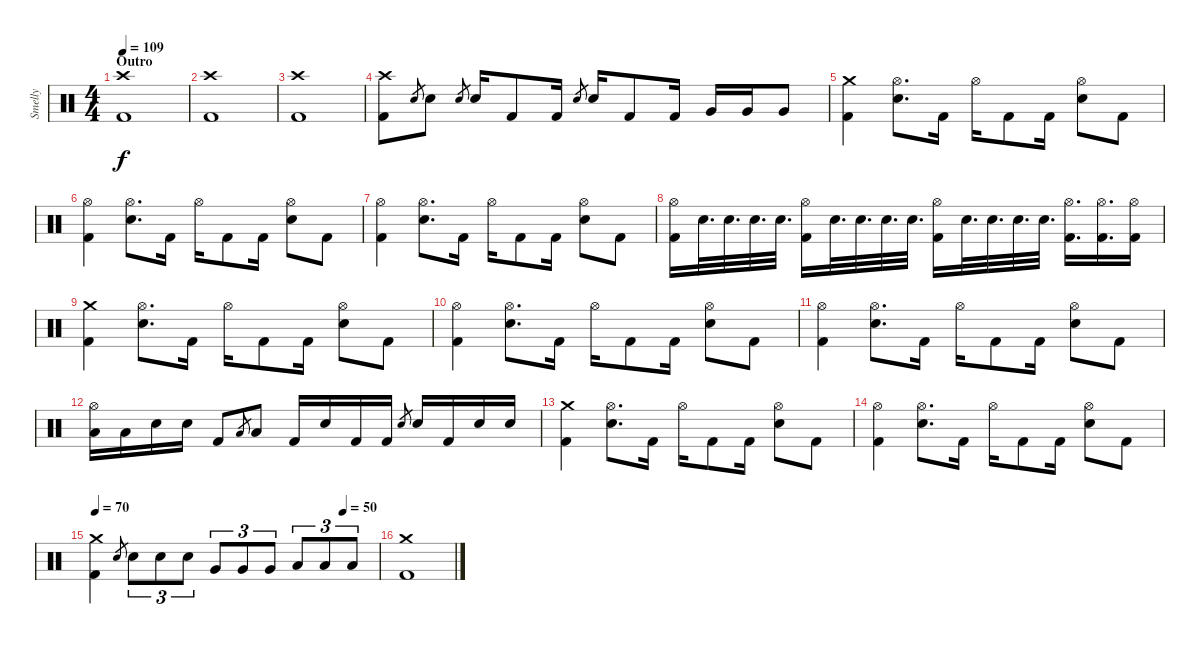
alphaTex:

\track ("Smelly" "Smelly") {instrument percussion}
\staff {score}
\articulation defaults
\ts (4 4)
\section ("" "Outro")
\tempo 109
\clef neutral
\ks c
("Crash high (hit)" "Kick (hit) 2").1{dy f} |
("Crash high (hit)" "Kick (hit) 2").1 |
("Crash high (hit)" "Kick (hit) 2").1 |
("Crash high (hit)" "Kick (hit) 2").8 "Electric Snare (hit)".8{gr} "Electric Snare (hit)".8 "Electric Snare (hit)".8{gr} "Electric Snare (hit)".16 "Kick (hit) 2".8 "Kick (hit) 2".16 "Electric Snare (hit)".8{gr} "Electric Snare (hit)".16 "Kick (hit) 2".8 "Kick (hit) 2".16 "Very Low Tom (hit)".16 "Very Low Tom (hit)".16 "Very Low Tom (hit)".8 |
("Crash medium (hit)" "Kick (hit) 2").4 ("Hi-Hat (open)" "Electric Snare (hit)").8{d} "Kick (hit) 2".16 "Hi-Hat (open)".16 "Kick (hit) 2".8 "Kick (hit) 2".16 ("Hi-Hat (open)" "Electric Snare (hit)").8 "Kick (hit) 2".8 |
("Hi-Hat (open)" "Kick (hit) 2").4 ("Hi-Hat (open)" "Electric Snare (hit)").8{d} "Kick (hit) 2".16 "Hi-Hat (open)".16 "Kick (hit) 2".8 "Kick (hit) 2".16 ("Hi-Hat (open)" "Electric Snare (hit)").8 "Kick (hit) 2".8 |
("Hi-Hat (open)" "Kick (hit) 2").4 ("Hi-Hat (open)" "Electric Snare (hit)").8{d} "Kick (hit) 2".16 "Hi-Hat (open)".16 "Kick (hit) 2".8 "Kick (hit) 2".16 ("Hi-Hat (open)" "Electric Snare (hit)").8 "Kick (hit) 2".8 |
("Hi-Hat (open)" "Kick (hit) 2").16 "Electric Snare (hit)".32{d} "Electric Snare (hit)".32{d} "Electric Snare (hit)".32{d} "Electric Snare (hit)".32{d} ("Hi-Hat (open)" "Kick (hit) 2").16 "Electric Snare (hit)".32{d} "Electric Snare (hit)".32{d} "Electric Snare (hit)".32{d} "Electric Snare (hit)".32{d} ("Hi-Hat (open)" "Kick (hit) 2").16 "Electric Snare (hit)".32{d} "Electric Snare (hit)".32{d} "Electric Snare (hit)".32{d} "Electric Snare (hit)".32{d} ("Hi-Hat (open)" "Kick (hit) 2").16{d} ("Hi-Hat (open)" "Kick (hit) 2").16{d} ("Hi-Hat (open)" "Kick (hit) 2").16 |
("Crash medium (hit)" "Kick (hit) 2").4 ("Hi-Hat (open)" "Electric Snare (hit)").8{d} "Kick (hit) 2".16 "Hi-Hat (open)".16 "Kick (hit) 2".8 "Kick (hit) 2".16 ("Hi-Hat (open)" "Electric Snare (hit)").8 "Kick (hit) 2".8 |
("Hi-Hat (open)" "Kick (hit) 2").4 ("Hi-Hat (open)" "Electric Snare (hit)").8{d} "Kick (hit) 2".16 "Hi-Hat (open)".16 "Kick (hit) 2".8 "Kick (hit) 2".16 ("Hi-Hat (open)" "Electric Snare (hit)").8 "Kick (hit) 2".8 |
("Hi-Hat (open)" "Kick (hit) 2").4 ("Hi-Hat (open)" "Electric Snare (hit)").8{d} "Kick (hit) 2".16 "Hi-Hat (open)".16 "Kick (hit) 2".8 "Kick (hit) 2".16 ("Hi-Hat (open)" "Electric Snare (hit)").8 "Kick (hit) 2".8 |
("Hi-Hat (open)" "Low Floor Tom (hit)").16 "Low Floor Tom (hit)".16 "Electric Snare (hit)".16 "Electric Snare (hit)".16 "Kick (hit) 2".8 "Low Tom (hit)".8{gr} "Low Tom (hit)".8 "Kick (hit) 2".16 "Electric Snare (hit)".16 "Kick (hit) 2".16 "Kick (hit) 2".16 "Electric Snare (hit)".8{gr} "Electric Snare (hit)".16 "Kick (hit) 2".16 "Electric Snare (hit)".16 "Electric Snare (hit)".16 |
("Crash medium (hit)" "Kick (hit) 2").4 ("Hi-Hat (open)" "Electric Snare (hit)").8{d} "Kick (hit) 2".16 "Hi-Hat (open)".16 "Kick (hit) 2".8 "Kick (hit) 2".16 ("Hi-Hat (open)" "Electric Snare (hit)").8 "Kick (hit) 2".8 |
("Hi-Hat (open)" "Kick (hit) 2").4 ("Hi-Hat (open)" "Electric Snare (hit)").8{d} "Kick (hit) 2".16 "Hi-Hat (open)".16 "Kick (hit) 2".8 "Kick (hit) 2".16 ("Hi-Hat (open)" "Electric Snare (hit)").8 "Kick (hit) 2".8 |
\tempo 70
\tempo (50 0.875)
("Crash medium (hit)" "Kick (hit) 2").4 "Electric Snare (hit)".8{gr} "Electric Snare (hit)".8{tu (3 2)} "Electric Snare (hit)".8{tu (3 2)} "Electric Snare (hit)".8{tu (3 2)} "Very Low Tom (hit)".8{tu (3 2)} "Very Low Tom (hit)".8{tu (3 2)} "Very Low Tom (hit)".8{tu (3 2)} "Low Floor Tom (hit)".8{tu (3 2)} "Low Floor Tom (hit)".8{tu (3 2)} "Low Floor Tom (hit)".8{tu (3 2)} |
("Crash medium (hit)" "Kick (hit) 2").1
